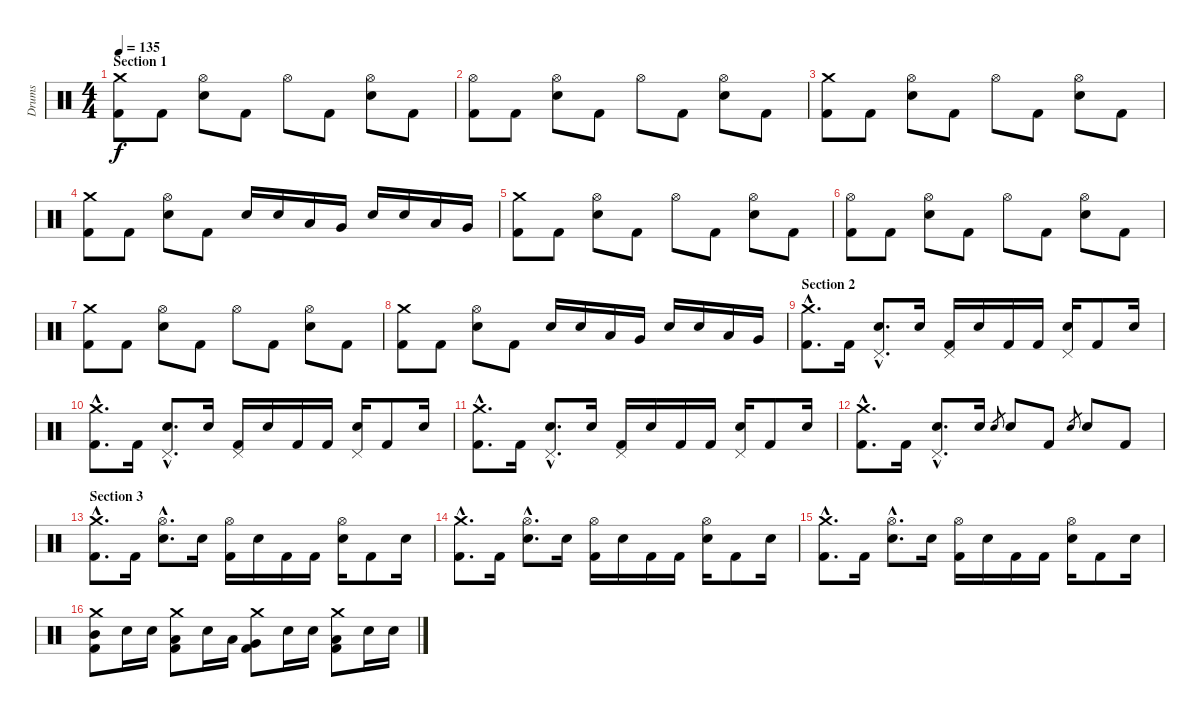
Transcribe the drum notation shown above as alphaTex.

\track ("Drums" "Drums") {instrument percussion}
\staff {score}
\articulation defaults
\ts (4 4)
\section ("" "Section 1")
\tempo 135
\clef neutral
\ks c
("Crash medium (hit)" "Kick (hit) 2").8{dy f} "Kick (hit) 2".8 ("Hi-Hat (open)" "Electric Snare (hit)").8 "Kick (hit) 2".8 "Hi-Hat (open)".8 "Kick (hit) 2".8 ("Hi-Hat (open)" "Electric Snare (hit)").8 "Kick (hit) 2".8 |
("Hi-Hat (open)" "Kick (hit) 2").8 "Kick (hit) 2".8 ("Hi-Hat (open)" "Electric Snare (hit)").8 "Kick (hit) 2".8 "Hi-Hat (open)".8 "Kick (hit) 2".8 ("Hi-Hat (open)" "Electric Snare (hit)").8 "Kick (hit) 2".8 |
("Crash medium (hit)" "Kick (hit) 2").8 "Kick (hit) 2".8 ("Hi-Hat (open)" "Electric Snare (hit)").8 "Kick (hit) 2".8 "Hi-Hat (open)".8 "Kick (hit) 2".8 ("Hi-Hat (open)" "Electric Snare (hit)").8 "Kick (hit) 2".8 |
("Crash medium (hit)" "Kick (hit) 2").8 "Kick (hit) 2".8 ("Hi-Hat (open)" "Electric Snare (hit)").8 "Kick (hit) 2".8 "Electric Snare (hit)".16 "Electric Snare (hit)".16 "Low Tom (hit)".16 "Very Low Tom (hit)".16 "Electric Snare (hit)".16 "Electric Snare (hit)".16 "Low Tom (hit)".16 "Very Low Tom (hit)".16 |
("Crash medium (hit)" "Kick (hit) 2").8 "Kick (hit) 2".8 ("Hi-Hat (open)" "Electric Snare (hit)").8 "Kick (hit) 2".8 "Hi-Hat (open)".8 "Kick (hit) 2".8 ("Hi-Hat (open)" "Electric Snare (hit)").8 "Kick (hit) 2".8 |
("Hi-Hat (open)" "Kick (hit) 2").8 "Kick (hit) 2".8 ("Hi-Hat (open)" "Electric Snare (hit)").8 "Kick (hit) 2".8 "Hi-Hat (open)".8 "Kick (hit) 2".8 ("Hi-Hat (open)" "Electric Snare (hit)").8 "Kick (hit) 2".8 |
("Crash medium (hit)" "Kick (hit) 2").8 "Kick (hit) 2".8 ("Hi-Hat (open)" "Electric Snare (hit)").8 "Kick (hit) 2".8 "Hi-Hat (open)".8 "Kick (hit) 2".8 ("Hi-Hat (open)" "Electric Snare (hit)").8 "Kick (hit) 2".8 |
("Crash medium (hit)" "Kick (hit) 2").8 "Kick (hit) 2".8 ("Hi-Hat (open)" "Electric Snare (hit)").8 "Kick (hit) 2".8 "Electric Snare (hit)".16 "Electric Snare (hit)".16 "Low Tom (hit)".16 "Very Low Tom (hit)".16 "Electric Snare (hit)".16 "Electric Snare (hit)".16 "Low Tom (hit)".16 "Very Low Tom (hit)".16 |
\section ("" "Section 2")
("Crash medium (hit)"{hac} "Kick (hit) 2"{hac}).8{d} "Kick (hit) 2".16 ("Pedal Hi-Hat (hit)"{hac} "Electric Snare (hit)"{hac}).8{d} "Electric Snare (hit)".16 ("Pedal Hi-Hat (hit)" "Kick (hit) 2").16 "Electric Snare (hit)".16 "Kick (hit) 2".16 "Kick (hit) 2".16 ("Pedal Hi-Hat (hit)" "Electric Snare (hit)").16 "Kick (hit) 2".8 "Electric Snare (hit)".16 |
("Crash medium (hit)"{hac} "Kick (hit) 2"{hac}).8{d} "Kick (hit) 2".16 ("Pedal Hi-Hat (hit)"{hac} "Electric Snare (hit)"{hac}).8{d} "Electric Snare (hit)".16 ("Pedal Hi-Hat (hit)" "Kick (hit) 2").16 "Electric Snare (hit)".16 "Kick (hit) 2".16 "Kick (hit) 2".16 ("Pedal Hi-Hat (hit)" "Electric Snare (hit)").16 "Kick (hit) 2".8 "Electric Snare (hit)".16 |
("Crash medium (hit)"{hac} "Kick (hit) 2"{hac}).8{d} "Kick (hit) 2".16 ("Pedal Hi-Hat (hit)"{hac} "Electric Snare (hit)"{hac}).8{d} "Electric Snare (hit)".16 ("Pedal Hi-Hat (hit)" "Kick (hit) 2").16 "Electric Snare (hit)".16 "Kick (hit) 2".16 "Kick (hit) 2".16 ("Pedal Hi-Hat (hit)" "Electric Snare (hit)").16 "Kick (hit) 2".8 "Electric Snare (hit)".16 |
("Crash medium (hit)"{hac} "Kick (hit) 2"{hac}).8{d} "Kick (hit) 2".16 ("Pedal Hi-Hat (hit)"{hac} "Electric Snare (hit)"{hac}).8{d} "Electric Snare (hit)".16 "Electric Snare (hit)".8{gr} "Electric Snare (hit)".8 "Kick (hit) 2".8 "Electric Snare (hit)".8{gr} "Electric Snare (hit)".8 "Kick (hit) 2".8 |
\section ("" "Section 3")
("Crash medium (hit)"{hac} "Kick (hit) 2"{hac}).8{d} "Kick (hit) 2".16 ("Hi-Hat (open)"{hac} "Electric Snare (hit)"{hac}).8{d} "Electric Snare (hit)".16 ("Hi-Hat (open)" "Kick (hit) 2").16 "Electric Snare (hit)".16 "Kick (hit) 2".16 "Kick (hit) 2".16 ("Hi-Hat (open)" "Electric Snare (hit)").16 "Kick (hit) 2".8 "Electric Snare (hit)".16 |
("Crash medium (hit)"{hac} "Kick (hit) 2"{hac}).8{d} "Kick (hit) 2".16 ("Hi-Hat (open)"{hac} "Electric Snare (hit)"{hac}).8{d} "Electric Snare (hit)".16 ("Hi-Hat (open)" "Kick (hit) 2").16 "Electric Snare (hit)".16 "Kick (hit) 2".16 "Kick (hit) 2".16 ("Hi-Hat (open)" "Electric Snare (hit)").16 "Kick (hit) 2".8 "Electric Snare (hit)".16 |
("Crash medium (hit)"{hac} "Kick (hit) 2"{hac}).8{d} "Kick (hit) 2".16 ("Hi-Hat (open)"{hac} "Electric Snare (hit)"{hac}).8{d} "Electric Snare (hit)".16 ("Hi-Hat (open)" "Kick (hit) 2").16 "Electric Snare (hit)".16 "Kick (hit) 2".16 "Kick (hit) 2".16 ("Hi-Hat (open)" "Electric Snare (hit)").16 "Kick (hit) 2".8 "Electric Snare (hit)".16 |
("Crash medium (hit)" "Kick (hit) 2" "Mid Tom (hit)").8 "Electric Snare (hit)".16 "Electric Snare (hit)".16 ("Crash medium (hit)" "Kick (hit) 2" "Low Tom (hit)").8 "Electric Snare (hit)".16 "Low Tom (hit)".16 ("Crash medium (hit)" "Kick (hit) 2" "Very Low Tom (hit)").8 "Electric Snare (hit)".16 "Electric Snare (hit)".16 ("Crash medium (hit)" "Kick (hit) 2" "Low Tom (hit)").8 "Electric Snare (hit)".16 "Electric Snare (hit)".16
